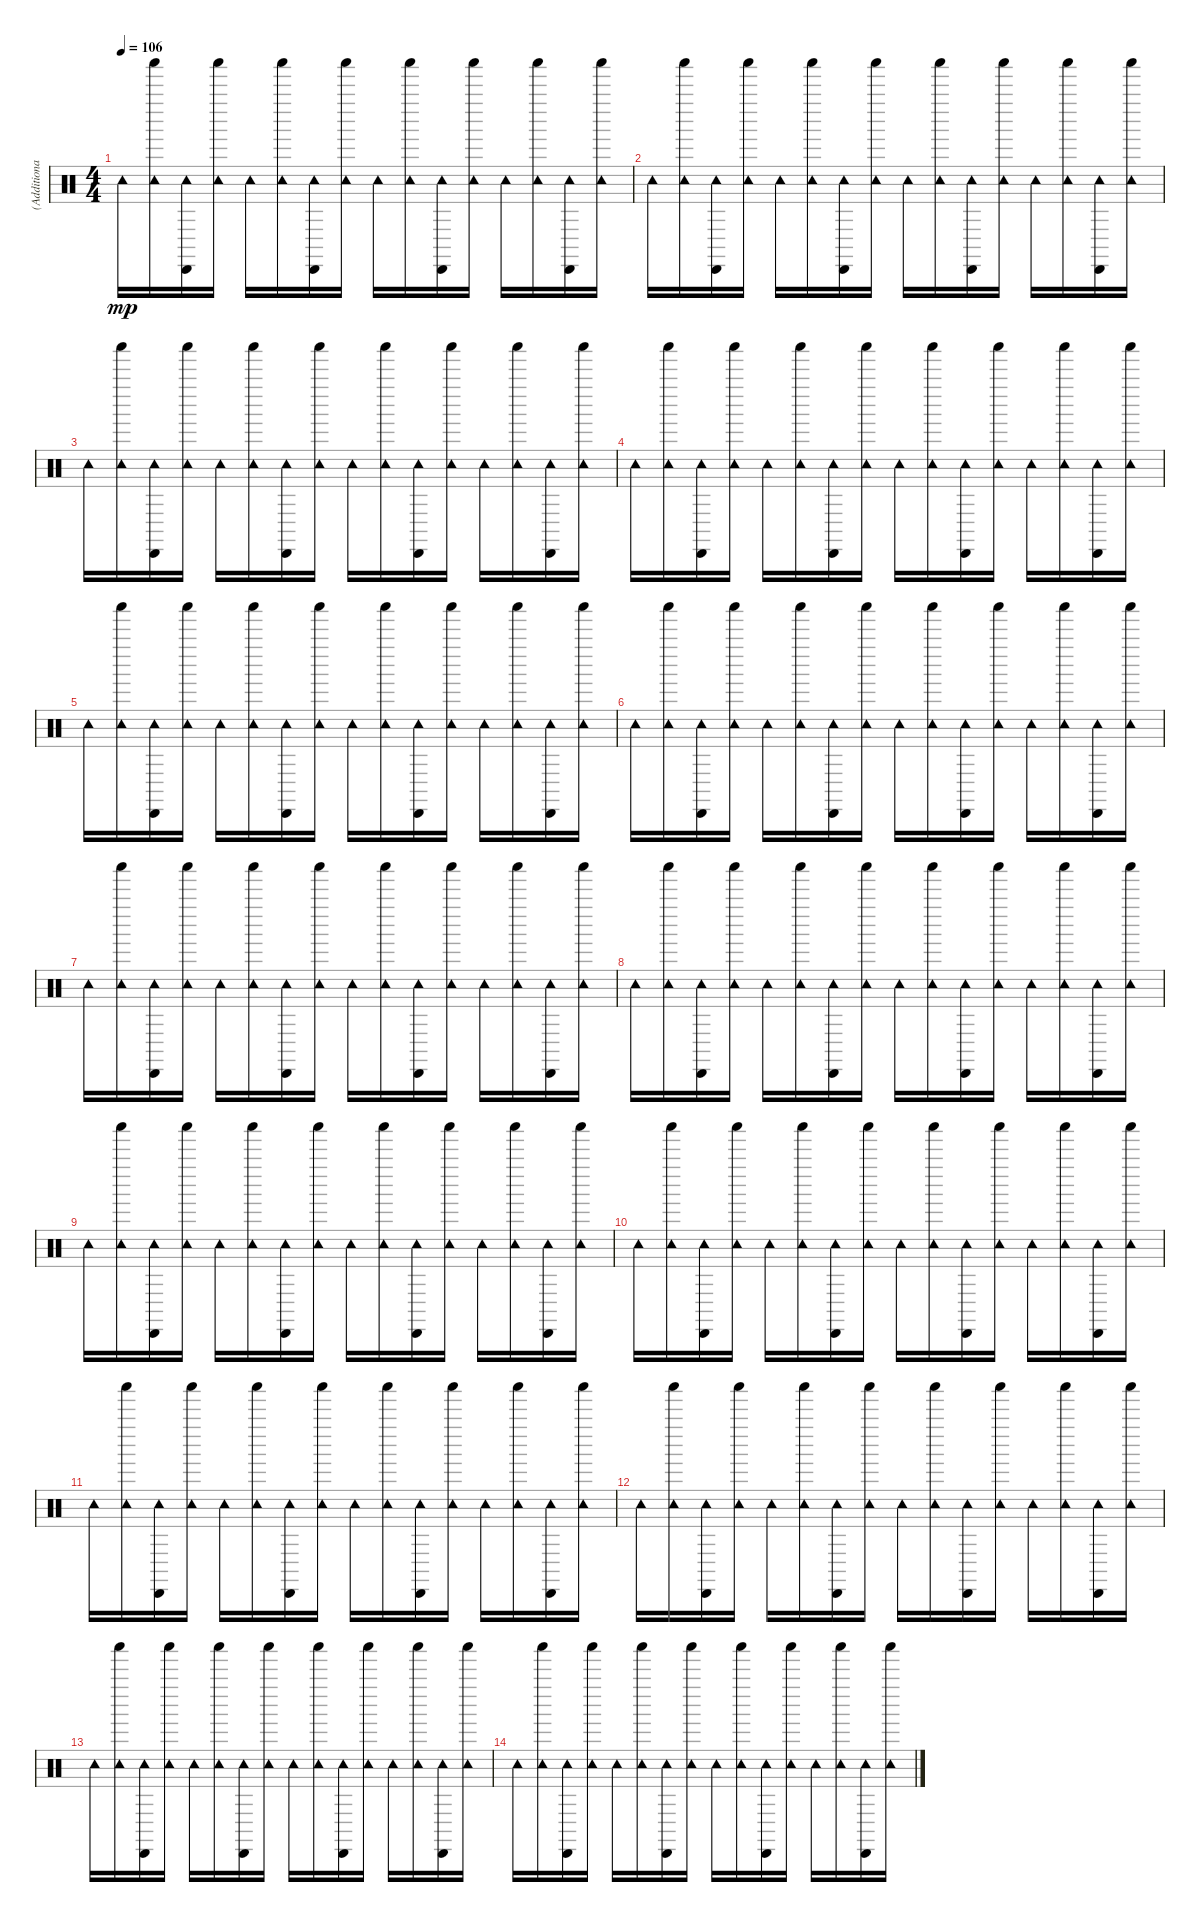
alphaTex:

\track ("(Additional Percussions)" "(Additiona") {instrument percussion}
\staff {score}
\articulation defaults
\ts (4 4)
\tempo 106
\clef neutral
\ks c "Tambourine (hit)".16{dy mp}
("Tambourine (hit)" "Shaker (hit)").16 ("Cabasa (hit)" "Tambourine (hit)").16 ("Tambourine (hit)" "Shaker (hit)").16 "Tambourine (hit)".16 ("Tambourine (hit)" "Shaker (hit)").16 ("Cabasa (hit)" "Tambourine (hit)").16 ("Tambourine (hit)" "Shaker (hit)").16 "Tambourine (hit)".16 ("Tambourine (hit)" "Shaker (hit)").16 ("Cabasa (hit)" "Tambourine (hit)").16 ("Tambourine (hit)" "Shaker (hit)").16 "Tambourine (hit)".16 ("Tambourine (hit)" "Shaker (hit)").16 ("Cabasa (hit)" "Tambourine (hit)").16 ("Tambourine (hit)" "Shaker (hit)").16 |
"Tambourine (hit)".16 ("Tambourine (hit)" "Shaker (hit)").16 ("Cabasa (hit)" "Tambourine (hit)").16 ("Tambourine (hit)" "Shaker (hit)").16 "Tambourine (hit)".16 ("Tambourine (hit)" "Shaker (hit)").16 ("Cabasa (hit)" "Tambourine (hit)").16 ("Tambourine (hit)" "Shaker (hit)").16 "Tambourine (hit)".16 ("Tambourine (hit)" "Shaker (hit)").16 ("Cabasa (hit)" "Tambourine (hit)").16 ("Tambourine (hit)" "Shaker (hit)").16 "Tambourine (hit)".16 ("Tambourine (hit)" "Shaker (hit)").16 ("Cabasa (hit)" "Tambourine (hit)").16 ("Tambourine (hit)" "Shaker (hit)").16 |
"Tambourine (hit)".16 ("Tambourine (hit)" "Shaker (hit)").16 ("Cabasa (hit)" "Tambourine (hit)").16 ("Tambourine (hit)" "Shaker (hit)").16 "Tambourine (hit)".16 ("Tambourine (hit)" "Shaker (hit)").16 ("Cabasa (hit)" "Tambourine (hit)").16 ("Tambourine (hit)" "Shaker (hit)").16 "Tambourine (hit)".16 ("Tambourine (hit)" "Shaker (hit)").16 ("Cabasa (hit)" "Tambourine (hit)").16 ("Tambourine (hit)" "Shaker (hit)").16 "Tambourine (hit)".16 ("Tambourine (hit)" "Shaker (hit)").16 ("Cabasa (hit)" "Tambourine (hit)").16 ("Tambourine (hit)" "Shaker (hit)").16 |
"Tambourine (hit)".16 ("Tambourine (hit)" "Shaker (hit)").16 ("Cabasa (hit)" "Tambourine (hit)").16 ("Tambourine (hit)" "Shaker (hit)").16 "Tambourine (hit)".16 ("Tambourine (hit)" "Shaker (hit)").16 ("Cabasa (hit)" "Tambourine (hit)").16 ("Tambourine (hit)" "Shaker (hit)").16 "Tambourine (hit)".16 ("Tambourine (hit)" "Shaker (hit)").16 ("Cabasa (hit)" "Tambourine (hit)").16 ("Tambourine (hit)" "Shaker (hit)").16 "Tambourine (hit)".16 ("Tambourine (hit)" "Shaker (hit)").16 ("Cabasa (hit)" "Tambourine (hit)").16 ("Tambourine (hit)" "Shaker (hit)").16 |
"Tambourine (hit)".16 ("Tambourine (hit)" "Shaker (hit)").16 ("Cabasa (hit)" "Tambourine (hit)").16 ("Tambourine (hit)" "Shaker (hit)").16 "Tambourine (hit)".16 ("Tambourine (hit)" "Shaker (hit)").16 ("Cabasa (hit)" "Tambourine (hit)").16 ("Tambourine (hit)" "Shaker (hit)").16 "Tambourine (hit)".16 ("Tambourine (hit)" "Shaker (hit)").16 ("Cabasa (hit)" "Tambourine (hit)").16 ("Tambourine (hit)" "Shaker (hit)").16 "Tambourine (hit)".16 ("Tambourine (hit)" "Shaker (hit)").16 ("Cabasa (hit)" "Tambourine (hit)").16 ("Tambourine (hit)" "Shaker (hit)").16 |
"Tambourine (hit)".16 ("Tambourine (hit)" "Shaker (hit)").16 ("Cabasa (hit)" "Tambourine (hit)").16 ("Tambourine (hit)" "Shaker (hit)").16 "Tambourine (hit)".16 ("Tambourine (hit)" "Shaker (hit)").16 ("Cabasa (hit)" "Tambourine (hit)").16 ("Tambourine (hit)" "Shaker (hit)").16 "Tambourine (hit)".16 ("Tambourine (hit)" "Shaker (hit)").16 ("Cabasa (hit)" "Tambourine (hit)").16 ("Tambourine (hit)" "Shaker (hit)").16 "Tambourine (hit)".16 ("Tambourine (hit)" "Shaker (hit)").16 ("Cabasa (hit)" "Tambourine (hit)").16 ("Tambourine (hit)" "Shaker (hit)").16 |
"Tambourine (hit)".16 ("Tambourine (hit)" "Shaker (hit)").16 ("Cabasa (hit)" "Tambourine (hit)").16 ("Tambourine (hit)" "Shaker (hit)").16 "Tambourine (hit)".16 ("Tambourine (hit)" "Shaker (hit)").16 ("Cabasa (hit)" "Tambourine (hit)").16 ("Tambourine (hit)" "Shaker (hit)").16 "Tambourine (hit)".16 ("Tambourine (hit)" "Shaker (hit)").16 ("Cabasa (hit)" "Tambourine (hit)").16 ("Tambourine (hit)" "Shaker (hit)").16 "Tambourine (hit)".16 ("Tambourine (hit)" "Shaker (hit)").16 ("Cabasa (hit)" "Tambourine (hit)").16 ("Tambourine (hit)" "Shaker (hit)").16 |
"Tambourine (hit)".16 ("Tambourine (hit)" "Shaker (hit)").16 ("Cabasa (hit)" "Tambourine (hit)").16 ("Tambourine (hit)" "Shaker (hit)").16 "Tambourine (hit)".16 ("Tambourine (hit)" "Shaker (hit)").16 ("Cabasa (hit)" "Tambourine (hit)").16 ("Tambourine (hit)" "Shaker (hit)").16 "Tambourine (hit)".16 ("Tambourine (hit)" "Shaker (hit)").16 ("Cabasa (hit)" "Tambourine (hit)").16 ("Tambourine (hit)" "Shaker (hit)").16 "Tambourine (hit)".16 ("Tambourine (hit)" "Shaker (hit)").16 ("Cabasa (hit)" "Tambourine (hit)").16 ("Tambourine (hit)" "Shaker (hit)").16 |
"Tambourine (hit)".16{volume 11} ("Tambourine (hit)" "Shaker (hit)").16 ("Cabasa (hit)" "Tambourine (hit)").16 ("Tambourine (hit)" "Shaker (hit)").16 "Tambourine (hit)".16 ("Tambourine (hit)" "Shaker (hit)").16 ("Cabasa (hit)" "Tambourine (hit)").16 ("Tambourine (hit)" "Shaker (hit)").16 "Tambourine (hit)".16 ("Tambourine (hit)" "Shaker (hit)").16 ("Cabasa (hit)" "Tambourine (hit)").16 ("Tambourine (hit)" "Shaker (hit)").16 "Tambourine (hit)".16 ("Tambourine (hit)" "Shaker (hit)").16 ("Cabasa (hit)" "Tambourine (hit)").16 ("Tambourine (hit)" "Shaker (hit)").16 |
"Tambourine (hit)".16 ("Tambourine (hit)" "Shaker (hit)").16 ("Cabasa (hit)" "Tambourine (hit)").16 ("Tambourine (hit)" "Shaker (hit)").16 "Tambourine (hit)".16 ("Tambourine (hit)" "Shaker (hit)").16 ("Cabasa (hit)" "Tambourine (hit)").16 ("Tambourine (hit)" "Shaker (hit)").16 "Tambourine (hit)".16 ("Tambourine (hit)" "Shaker (hit)").16 ("Cabasa (hit)" "Tambourine (hit)").16 ("Tambourine (hit)" "Shaker (hit)").16 "Tambourine (hit)".16 ("Tambourine (hit)" "Shaker (hit)").16 ("Cabasa (hit)" "Tambourine (hit)").16 ("Tambourine (hit)" "Shaker (hit)").16 |
"Tambourine (hit)".16{volume 7} ("Tambourine (hit)" "Shaker (hit)").16 ("Cabasa (hit)" "Tambourine (hit)").16 ("Tambourine (hit)" "Shaker (hit)").16 "Tambourine (hit)".16 ("Tambourine (hit)" "Shaker (hit)").16 ("Cabasa (hit)" "Tambourine (hit)").16 ("Tambourine (hit)" "Shaker (hit)").16 "Tambourine (hit)".16 ("Tambourine (hit)" "Shaker (hit)").16 ("Cabasa (hit)" "Tambourine (hit)").16 ("Tambourine (hit)" "Shaker (hit)").16 "Tambourine (hit)".16 ("Tambourine (hit)" "Shaker (hit)").16 ("Cabasa (hit)" "Tambourine (hit)").16 ("Tambourine (hit)" "Shaker (hit)").16 |
"Tambourine (hit)".16 ("Tambourine (hit)" "Shaker (hit)").16 ("Cabasa (hit)" "Tambourine (hit)").16 ("Tambourine (hit)" "Shaker (hit)").16 "Tambourine (hit)".16 ("Tambourine (hit)" "Shaker (hit)").16 ("Cabasa (hit)" "Tambourine (hit)").16 ("Tambourine (hit)" "Shaker (hit)").16 "Tambourine (hit)".16 ("Tambourine (hit)" "Shaker (hit)").16 ("Cabasa (hit)" "Tambourine (hit)").16 ("Tambourine (hit)" "Shaker (hit)").16 "Tambourine (hit)".16 ("Tambourine (hit)" "Shaker (hit)").16 ("Cabasa (hit)" "Tambourine (hit)").16 ("Tambourine (hit)" "Shaker (hit)").16 |
"Tambourine (hit)".16{volume 3} ("Tambourine (hit)" "Shaker (hit)").16 ("Cabasa (hit)" "Tambourine (hit)").16 ("Tambourine (hit)" "Shaker (hit)").16 "Tambourine (hit)".16 ("Tambourine (hit)" "Shaker (hit)").16 ("Cabasa (hit)" "Tambourine (hit)").16 ("Tambourine (hit)" "Shaker (hit)").16 "Tambourine (hit)".16 ("Tambourine (hit)" "Shaker (hit)").16 ("Cabasa (hit)" "Tambourine (hit)").16 ("Tambourine (hit)" "Shaker (hit)").16 "Tambourine (hit)".16 ("Tambourine (hit)" "Shaker (hit)").16 ("Cabasa (hit)" "Tambourine (hit)").16 ("Tambourine (hit)" "Shaker (hit)").16 |
"Tambourine (hit)".16 ("Tambourine (hit)" "Shaker (hit)").16 ("Cabasa (hit)" "Tambourine (hit)").16 ("Tambourine (hit)" "Shaker (hit)").16 "Tambourine (hit)".16 ("Tambourine (hit)" "Shaker (hit)").16 ("Cabasa (hit)" "Tambourine (hit)").16 ("Tambourine (hit)" "Shaker (hit)").16 "Tambourine (hit)".16 ("Tambourine (hit)" "Shaker (hit)").16 ("Cabasa (hit)" "Tambourine (hit)").16 ("Tambourine (hit)" "Shaker (hit)").16 "Tambourine (hit)".16 ("Tambourine (hit)" "Shaker (hit)").16 ("Cabasa (hit)" "Tambourine (hit)").16 ("Tambourine (hit)" "Shaker (hit)").16
